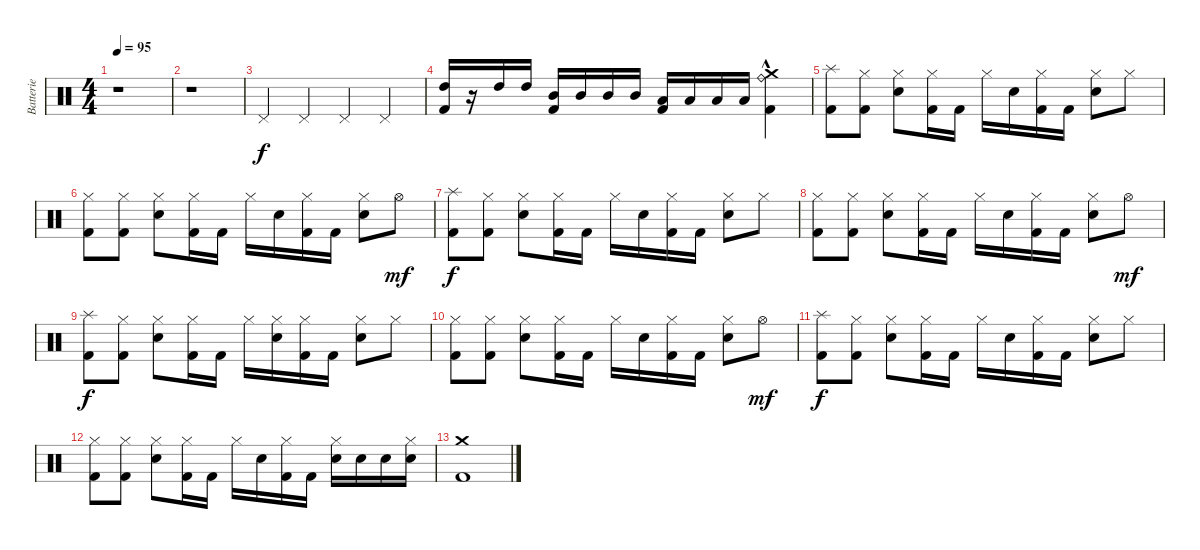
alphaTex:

\track ("Batterie" "Batterie") {instrument percussion}
\staff {score}
\articulation defaults
\ts (4 4)
\tempo 95
\clef neutral
\ks c
r.1{dy f} |
r.1 |
"Pedal Hi-Hat (hit)".4 "Pedal Hi-Hat (hit)".4 "Pedal Hi-Hat (hit)".4 "Pedal Hi-Hat (hit)".4 |
("High Tom (hit)" "Kick (hit) 2").16 r.16 "High Tom (hit)".16 "High Tom (hit)".16 ("Mid Tom (hit)" "Kick (hit) 2").16 "Mid Tom (hit)".16 "Mid Tom (hit)".16 "Mid Tom (hit)".16 ("Low Tom (hit)" "Kick (hit) 2").16 "Low Tom (hit)".16 "Low Tom (hit)".16 "Low Tom (hit)".16 ("Crash medium (hit)"{hac} "Ride (bell)" "Kick (hit) 2").4 |
("Splash (hit)" "Kick (hit) 2").8 ("Hi-Hat (closed)" "Kick (hit) 2").8 ("Hi-Hat (closed)" "Electric Snare (hit)").8 ("Hi-Hat (closed)" "Kick (hit) 2").16 "Kick (hit) 2".16 "Hi-Hat (closed)".16 "Electric Snare (hit)".16 ("Hi-Hat (closed)" "Kick (hit) 2").16 "Kick (hit) 2".16 ("Hi-Hat (closed)" "Electric Snare (hit)").8 "Hi-Hat (closed)".8 |
("Hi-Hat (closed)" "Kick (hit) 2").8 ("Hi-Hat (closed)" "Kick (hit) 2").8 ("Hi-Hat (closed)" "Electric Snare (hit)").8 ("Hi-Hat (closed)" "Kick (hit) 2").16 "Kick (hit) 2".16 "Hi-Hat (closed)".16 "Electric Snare (hit)".16 ("Hi-Hat (closed)" "Kick (hit) 2").16 "Kick (hit) 2".16 ("Hi-Hat (closed)" "Electric Snare (hit)").8 "Hi-Hat (open)".8{dy mf} |
("Splash (hit)" "Kick (hit) 2").8{dy f} ("Hi-Hat (closed)" "Kick (hit) 2").8 ("Hi-Hat (closed)" "Electric Snare (hit)").8 ("Hi-Hat (closed)" "Kick (hit) 2").16 "Kick (hit) 2".16 "Hi-Hat (closed)".16 "Electric Snare (hit)".16 ("Hi-Hat (closed)" "Kick (hit) 2").16 "Kick (hit) 2".16 ("Hi-Hat (closed)" "Electric Snare (hit)").8 "Hi-Hat (closed)".8 |
("Hi-Hat (closed)" "Kick (hit) 2").8 ("Hi-Hat (closed)" "Kick (hit) 2").8 ("Hi-Hat (closed)" "Electric Snare (hit)").8 ("Hi-Hat (closed)" "Kick (hit) 2").16 "Kick (hit) 2".16 "Hi-Hat (closed)".16 "Electric Snare (hit)".16 ("Hi-Hat (closed)" "Kick (hit) 2").16 "Kick (hit) 2".16 ("Hi-Hat (closed)" "Electric Snare (hit)").8 "Hi-Hat (open)".8{dy mf} |
("Splash (hit)" "Kick (hit) 2").8{dy f} ("Hi-Hat (closed)" "Kick (hit) 2").8 ("Hi-Hat (closed)" "Electric Snare (hit)").8 ("Hi-Hat (closed)" "Kick (hit) 2").16 "Kick (hit) 2".16 "Hi-Hat (closed)".16 ("Hi-Hat (closed)" "Electric Snare (hit)").16 ("Hi-Hat (closed)" "Kick (hit) 2").16 "Kick (hit) 2".16 ("Hi-Hat (closed)" "Electric Snare (hit)").8 "Hi-Hat (closed)".8 |
("Hi-Hat (closed)" "Kick (hit) 2").8 ("Hi-Hat (closed)" "Kick (hit) 2").8 ("Hi-Hat (closed)" "Electric Snare (hit)").8 ("Hi-Hat (closed)" "Kick (hit) 2").16 "Kick (hit) 2".16 "Hi-Hat (closed)".16 "Electric Snare (hit)".16 ("Hi-Hat (closed)" "Kick (hit) 2").16 "Kick (hit) 2".16 ("Hi-Hat (closed)" "Electric Snare (hit)").8 "Hi-Hat (open)".8{dy mf} |
("Splash (hit)" "Kick (hit) 2").8{dy f} ("Hi-Hat (closed)" "Kick (hit) 2").8 ("Hi-Hat (closed)" "Electric Snare (hit)").8 ("Hi-Hat (closed)" "Kick (hit) 2").16 "Kick (hit) 2".16 "Hi-Hat (closed)".16 "Electric Snare (hit)".16 ("Hi-Hat (closed)" "Kick (hit) 2").16 "Kick (hit) 2".16 ("Hi-Hat (closed)" "Electric Snare (hit)").8 "Hi-Hat (closed)".8 |
("Hi-Hat (closed)" "Kick (hit) 2").8 ("Hi-Hat (closed)" "Kick (hit) 2").8 ("Hi-Hat (closed)" "Electric Snare (hit)").8 ("Hi-Hat (closed)" "Kick (hit) 2").16 "Kick (hit) 2".16 "Hi-Hat (closed)".16 "Electric Snare (hit)".16 ("Hi-Hat (closed)" "Kick (hit) 2").16 "Kick (hit) 2".16 ("Hi-Hat (closed)" "Electric Snare (hit)").16 "Electric Snare (hit)".16 "Electric Snare (hit)".16 ("Hi-Hat (closed)" "Electric Snare (hit)").16 |
("Crash medium (hit)" "Kick (hit) 2").1
